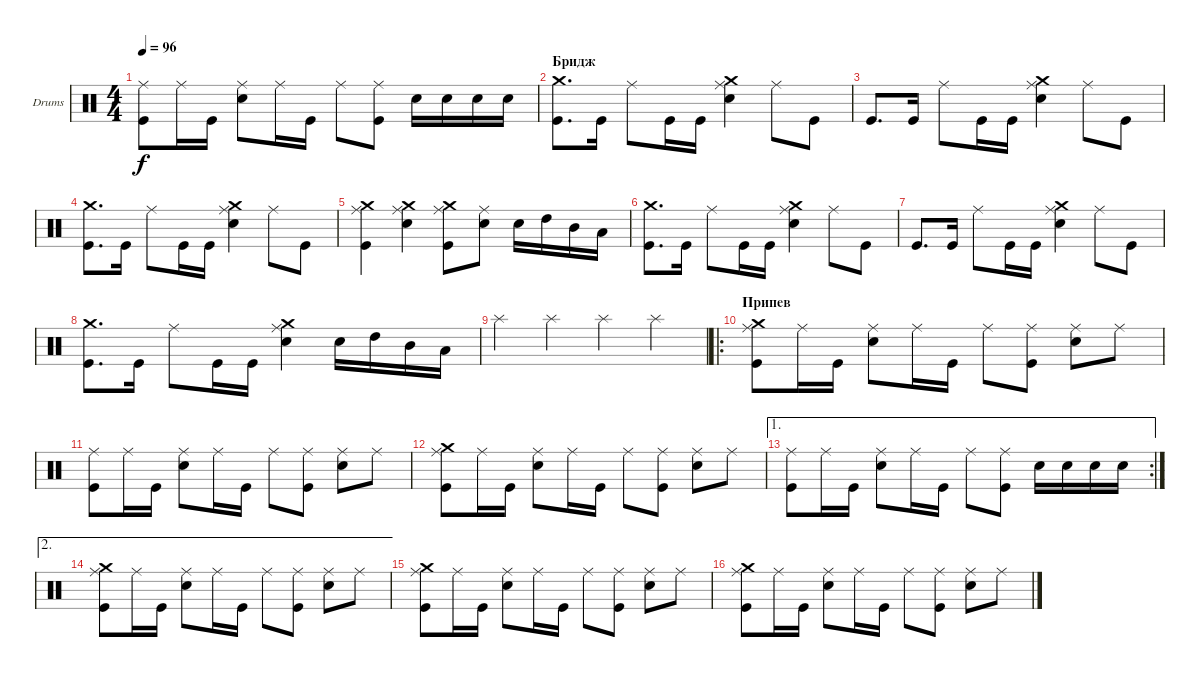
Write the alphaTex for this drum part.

\defaultSystemsLayout 4
\bracketExtendMode groupsimilarinstruments
\firstSystemTrackNameOrientation horizontal
\otherSystemsTrackNameOrientation horizontal
\track ("Drumkit" "Drums") {instrument percussion}
\staff {score}
\articulation defaults
\ts (4 4)
\tempo 96
\clef neutral
\ks c
("Ride (middle)" "Kick (hit)").8{dy f} "Ride (middle)".16 "Kick (hit)".16 ("Ride (middle)" "Snare (hit) 2").8 "Ride (middle)".16 "Kick (hit)".16 "Ride (middle)".8 ("Ride (middle)" "Kick (hit)").8 "Snare (hit) 2".16 "Snare (hit) 2".16 "Snare (hit) 2".16 "Snare (hit) 2".16 |
\section ("" "Бридж")
("Crash medium (hit)" "Kick (hit)").8{d} "Kick (hit)".16 "Ride (middle)".8 "Kick (hit)".16 "Kick (hit)".16 ("Crash medium (hit)" "Ride (middle)" "Snare (hit) 2").4 "Ride (middle)".8 "Kick (hit)".8 |
"Kick (hit)".8{d} "Kick (hit)".16 "Ride (middle)".8 "Kick (hit)".16 "Kick (hit)".16 ("Crash medium (hit)" "Ride (middle)" "Snare (hit) 2").4 "Ride (middle)".8 "Kick (hit)".8 |
("Crash medium (hit)" "Kick (hit)").8{d} "Kick (hit)".16 "Ride (middle)".8 "Kick (hit)".16 "Kick (hit)".16 ("Crash medium (hit)" "Ride (middle)" "Snare (hit) 2").4 "Ride (middle)".8 "Kick (hit)".8 |
("Crash medium (hit)" "Ride (middle)" "Kick (hit)").4 ("Crash medium (hit)" "Ride (middle)" "Snare (hit) 2").4 ("Crash medium (hit)" "Ride (middle)" "Kick (hit)").8 ("Ride (middle)" "Snare (hit) 2").8 "Snare (hit) 2".16 "High Tom (hit)".16 "Mid Tom (hit)".16 "Low Tom (hit)".16 |
("Crash medium (hit)" "Kick (hit)").8{d} "Kick (hit)".16 "Ride (middle)".8 "Kick (hit)".16 "Kick (hit)".16 ("Crash medium (hit)" "Ride (middle)" "Snare (hit) 2").4 "Ride (middle)".8 "Kick (hit)".8 |
"Kick (hit)".8{d} "Kick (hit)".16 "Ride (middle)".8 "Kick (hit)".16 "Kick (hit)".16 ("Crash medium (hit)" "Ride (middle)" "Snare (hit) 2").4 "Ride (middle)".8 "Kick (hit)".8 |
("Crash medium (hit)" "Kick (hit)").8{d} "Kick (hit)".16 "Ride (middle)".8 "Kick (hit)".16 "Kick (hit)".16 ("Crash medium (hit)" "Ride (middle)" "Snare (hit) 2").4 "Snare (hit) 2".16 "High Tom (hit)".16 "Mid Tom (hit)".16 "Low Tom (hit)".16 |
"Splash (hit)".4 "Splash (hit)".4 "Splash (hit)".4 "Splash (hit)".4 |
\ro
\section ("" "Припев")
("Crash medium (hit)" "Ride (middle)" "Kick (hit)").8 "Ride (middle)".16 "Kick (hit)".16 ("Ride (middle)" "Snare (hit) 2").8 "Ride (middle)".16 "Kick (hit)".16 "Ride (middle)".8 ("Ride (middle)" "Kick (hit)").8 ("Ride (middle)" "Snare (hit) 2").8 "Ride (middle)".8 |
("Ride (middle)" "Kick (hit)").8 "Ride (middle)".16 "Kick (hit)".16 ("Ride (middle)" "Snare (hit) 2").8 "Ride (middle)".16 "Kick (hit)".16 "Ride (middle)".8 ("Ride (middle)" "Kick (hit)").8 ("Ride (middle)" "Snare (hit) 2").8 "Ride (middle)".8 |
("Crash medium (hit)" "Ride (middle)" "Kick (hit)").8 "Ride (middle)".16 "Kick (hit)".16 ("Ride (middle)" "Snare (hit) 2").8 "Ride (middle)".16 "Kick (hit)".16 "Ride (middle)".8 ("Ride (middle)" "Kick (hit)").8 ("Ride (middle)" "Snare (hit) 2").8 "Ride (middle)".8 |
\ae 1
\rc 2
("Ride (middle)" "Kick (hit)").8 "Ride (middle)".16 "Kick (hit)".16 ("Ride (middle)" "Snare (hit) 2").8 "Ride (middle)".16 "Kick (hit)".16 "Ride (middle)".8 ("Ride (middle)" "Kick (hit)").8 "Snare (hit) 2".16 "Snare (hit) 2".16 "Snare (hit) 2".16 "Snare (hit) 2".16 |
\ae 2
("Crash medium (hit)" "Ride (middle)" "Kick (hit)").8 "Ride (middle)".16 "Kick (hit)".16 ("Ride (middle)" "Snare (hit) 2").8 "Ride (middle)".16 "Kick (hit)".16 "Ride (middle)".8 ("Ride (middle)" "Kick (hit)").8 ("Ride (middle)" "Snare (hit) 2").8 "Ride (middle)".8 |
("Crash medium (hit)" "Ride (middle)" "Kick (hit)").8 "Ride (middle)".16 "Kick (hit)".16 ("Ride (middle)" "Snare (hit) 2").8 "Ride (middle)".16 "Kick (hit)".16 "Ride (middle)".8 ("Ride (middle)" "Kick (hit)").8 ("Ride (middle)" "Snare (hit) 2").8 "Ride (middle)".8 |
("Crash medium (hit)" "Ride (middle)" "Kick (hit)").8 "Ride (middle)".16 "Kick (hit)".16 ("Ride (middle)" "Snare (hit) 2").8 "Ride (middle)".16 "Kick (hit)".16 "Ride (middle)".8 ("Ride (middle)" "Kick (hit)").8 ("Ride (middle)" "Snare (hit) 2").8 "Ride (middle)".8
